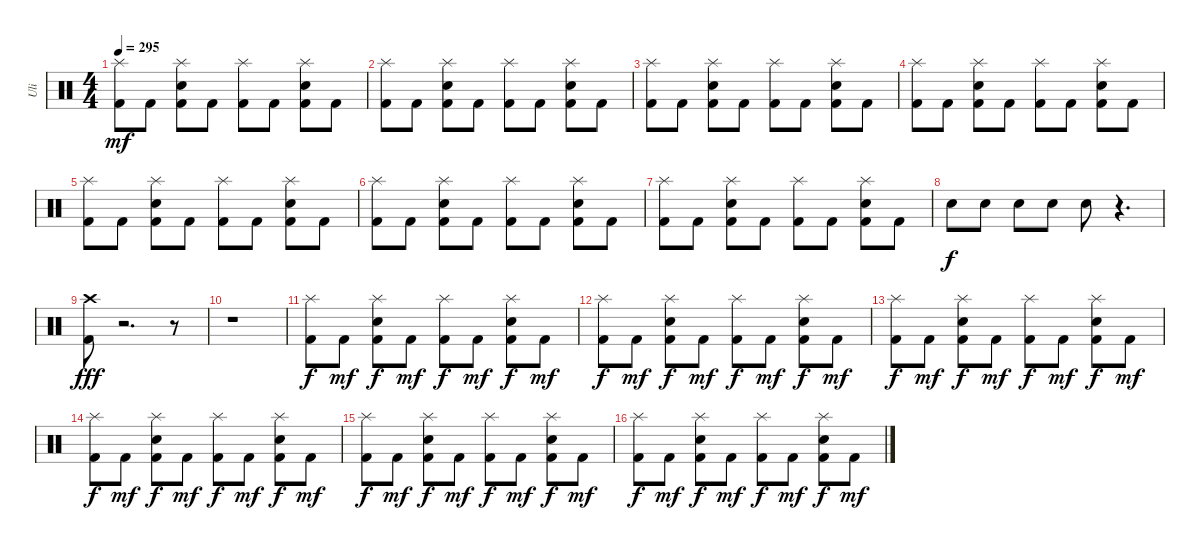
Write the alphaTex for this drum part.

\track ("Uli" "Uli") {instrument percussion}
\staff {score}
\articulation defaults
\ts (4 4)
\tempo 295
\clef neutral
\ks c
("Splash (hit)" "Kick (hit) 2").8{dy mf} "Kick (hit) 2".8{volume 16} ("Splash (hit)" "Electric Snare (hit)" "Kick (hit) 2").8 "Kick (hit) 2".8 ("Splash (hit)" "Kick (hit) 2").8 "Kick (hit) 2".8 ("Splash (hit)" "Electric Snare (hit)" "Kick (hit) 2").8 "Kick (hit) 2".8 |
("Splash (hit)" "Kick (hit) 2").8 "Kick (hit) 2".8{volume 16} ("Splash (hit)" "Electric Snare (hit)" "Kick (hit) 2").8 "Kick (hit) 2".8 ("Splash (hit)" "Kick (hit) 2").8 "Kick (hit) 2".8 ("Splash (hit)" "Electric Snare (hit)" "Kick (hit) 2").8 "Kick (hit) 2".8 |
("Splash (hit)" "Kick (hit) 2").8 "Kick (hit) 2".8{volume 16} ("Splash (hit)" "Electric Snare (hit)" "Kick (hit) 2").8 "Kick (hit) 2".8 ("Splash (hit)" "Kick (hit) 2").8 "Kick (hit) 2".8 ("Splash (hit)" "Electric Snare (hit)" "Kick (hit) 2").8 "Kick (hit) 2".8 |
("Splash (hit)" "Kick (hit) 2").8 "Kick (hit) 2".8{volume 16} ("Splash (hit)" "Electric Snare (hit)" "Kick (hit) 2").8 "Kick (hit) 2".8 ("Splash (hit)" "Kick (hit) 2").8 "Kick (hit) 2".8 ("Splash (hit)" "Electric Snare (hit)" "Kick (hit) 2").8 "Kick (hit) 2".8 |
("Splash (hit)" "Kick (hit) 2").8 "Kick (hit) 2".8{volume 16} ("Splash (hit)" "Electric Snare (hit)" "Kick (hit) 2").8 "Kick (hit) 2".8 ("Splash (hit)" "Kick (hit) 2").8 "Kick (hit) 2".8 ("Splash (hit)" "Electric Snare (hit)" "Kick (hit) 2").8 "Kick (hit) 2".8 |
("Splash (hit)" "Kick (hit) 2").8 "Kick (hit) 2".8{volume 16} ("Splash (hit)" "Electric Snare (hit)" "Kick (hit) 2").8 "Kick (hit) 2".8 ("Splash (hit)" "Kick (hit) 2").8 "Kick (hit) 2".8 ("Splash (hit)" "Electric Snare (hit)" "Kick (hit) 2").8 "Kick (hit) 2".8 |
("Splash (hit)" "Kick (hit) 2").8 "Kick (hit) 2".8{volume 16} ("Splash (hit)" "Electric Snare (hit)" "Kick (hit) 2").8 "Kick (hit) 2".8 ("Splash (hit)" "Kick (hit) 2").8 "Kick (hit) 2".8 ("Splash (hit)" "Electric Snare (hit)" "Kick (hit) 2").8 "Kick (hit) 2".8 |
"Electric Snare (hit)".8{dy f} "Electric Snare (hit)".8 "Electric Snare (hit)".8 "Electric Snare (hit)".8 "Electric Snare (hit)".8 r.4{d} |
("Crash high (hit)" "Kick (hit) 2").8{dy fff} r.2{d} r.8 |
r.1 |
("Splash (hit)" "Kick (hit) 2").8{dy f} "Kick (hit) 2".8{dy mf volume 16} ("Splash (hit)" "Electric Snare (hit)" "Kick (hit) 2").8{dy f} "Kick (hit) 2".8{dy mf} ("Splash (hit)" "Kick (hit) 2").8{dy f} "Kick (hit) 2".8{dy mf} ("Splash (hit)" "Electric Snare (hit)" "Kick (hit) 2").8{dy f} "Kick (hit) 2".8{dy mf} |
("Splash (hit)" "Kick (hit) 2").8{dy f} "Kick (hit) 2".8{dy mf volume 16} ("Splash (hit)" "Electric Snare (hit)" "Kick (hit) 2").8{dy f} "Kick (hit) 2".8{dy mf} ("Splash (hit)" "Kick (hit) 2").8{dy f} "Kick (hit) 2".8{dy mf} ("Splash (hit)" "Electric Snare (hit)" "Kick (hit) 2").8{dy f} "Kick (hit) 2".8{dy mf} |
("Splash (hit)" "Kick (hit) 2").8{dy f} "Kick (hit) 2".8{dy mf volume 16} ("Splash (hit)" "Electric Snare (hit)" "Kick (hit) 2").8{dy f} "Kick (hit) 2".8{dy mf} ("Splash (hit)" "Kick (hit) 2").8{dy f} "Kick (hit) 2".8{dy mf} ("Splash (hit)" "Electric Snare (hit)" "Kick (hit) 2").8{dy f} "Kick (hit) 2".8{dy mf} |
("Splash (hit)" "Kick (hit) 2").8{dy f} "Kick (hit) 2".8{dy mf volume 16} ("Splash (hit)" "Electric Snare (hit)" "Kick (hit) 2").8{dy f} "Kick (hit) 2".8{dy mf} ("Splash (hit)" "Kick (hit) 2").8{dy f} "Kick (hit) 2".8{dy mf} ("Splash (hit)" "Electric Snare (hit)" "Kick (hit) 2").8{dy f} "Kick (hit) 2".8{dy mf} |
("Splash (hit)" "Kick (hit) 2").8{dy f} "Kick (hit) 2".8{dy mf volume 16} ("Splash (hit)" "Electric Snare (hit)" "Kick (hit) 2").8{dy f} "Kick (hit) 2".8{dy mf} ("Splash (hit)" "Kick (hit) 2").8{dy f} "Kick (hit) 2".8{dy mf} ("Splash (hit)" "Electric Snare (hit)" "Kick (hit) 2").8{dy f} "Kick (hit) 2".8{dy mf} |
("Splash (hit)" "Kick (hit) 2").8{dy f} "Kick (hit) 2".8{dy mf volume 16} ("Splash (hit)" "Electric Snare (hit)" "Kick (hit) 2").8{dy f} "Kick (hit) 2".8{dy mf} ("Splash (hit)" "Kick (hit) 2").8{dy f} "Kick (hit) 2".8{dy mf} ("Splash (hit)" "Electric Snare (hit)" "Kick (hit) 2").8{dy f} "Kick (hit) 2".8{dy mf}
